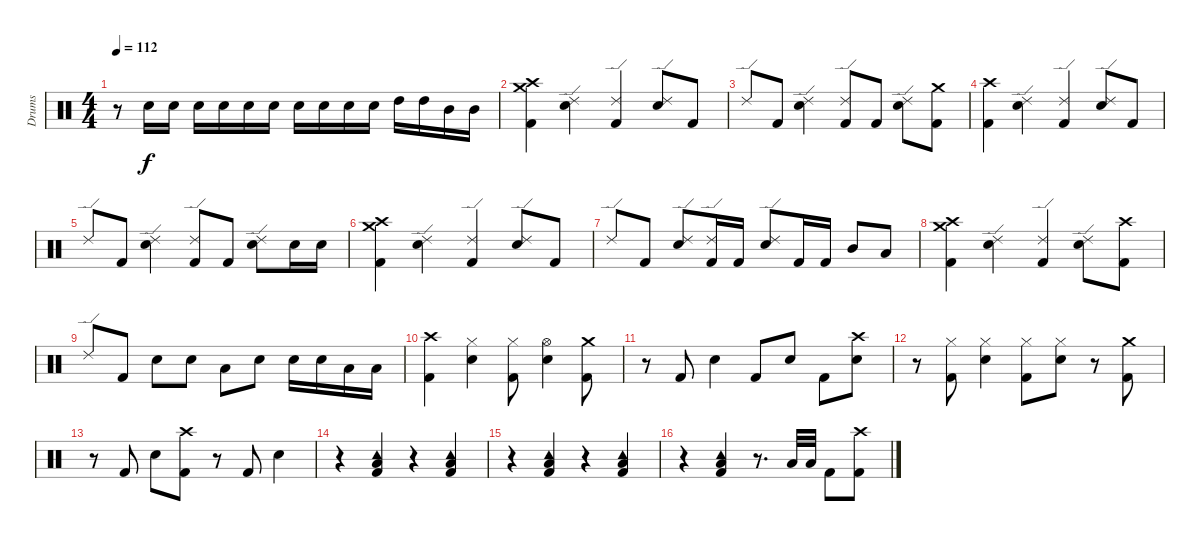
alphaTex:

\track ("Drums" "Drums") {instrument percussion}
\staff {score}
\articulation defaults
\ts (4 4)
\tempo 112
\clef neutral
\ks c
r.8{dy f} "Electric Snare (hit)".16 "Electric Snare (hit)".16 "Electric Snare (hit)".16 "Electric Snare (hit)".16 "Electric Snare (hit)".16 "Electric Snare (hit)".16 "Electric Snare (hit)".16 "Electric Snare (hit)".16 "Electric Snare (hit)".16 "Electric Snare (hit)".16 "High Tom (hit)".16 "High Tom (hit)".16 "Mid Tom (hit)".16 "Mid Tom (hit)".16 |
("Crash medium (hit)" "Crash high (hit)" "Kick (hit) 2").4 ("Ride (edge) 2" "Electric Snare (hit)").4 ("Ride (edge) 2" "Kick (hit) 2").4 ("Ride (edge) 2" "Electric Snare (hit)").8 "Kick (hit) 2".8 |
"Ride (edge) 2".8 "Kick (hit) 2".8 ("Ride (edge) 2" "Electric Snare (hit)").4 ("Ride (edge) 2" "Kick (hit) 2").8 "Kick (hit) 2".8 ("Ride (edge) 2" "Electric Snare (hit)").8 ("Crash medium (hit)" "Kick (hit) 2").8 |
("Crash high (hit)" "Kick (hit) 2").4 ("Ride (edge) 2" "Electric Snare (hit)").4 ("Ride (edge) 2" "Kick (hit) 2").4 ("Ride (edge) 2" "Electric Snare (hit)").8 "Kick (hit) 2".8 |
"Ride (edge) 2".8 "Kick (hit) 2".8 ("Ride (edge) 2" "Electric Snare (hit)").4 ("Ride (edge) 2" "Kick (hit) 2").8 "Kick (hit) 2".8 ("Ride (edge) 2" "Electric Snare (hit)").8 "Electric Snare (hit)".16 "Electric Snare (hit)".16 |
("Crash medium (hit)" "Crash high (hit)" "Kick (hit) 2").4 ("Ride (edge) 2" "Electric Snare (hit)").4 ("Ride (edge) 2" "Kick (hit) 2").4 ("Ride (edge) 2" "Electric Snare (hit)").8 "Kick (hit) 2".8 |
"Ride (edge) 2".8 "Kick (hit) 2".8 ("Ride (edge) 2" "Electric Snare (hit)").8 ("Ride (edge) 2" "Kick (hit) 2").16 "Kick (hit) 2".16 ("Ride (edge) 2" "Electric Snare (hit)").8 "Kick (hit) 2".16 "Kick (hit) 2".16 "Mid Tom (hit)".8 "Low Tom (hit)".8 |
("Crash medium (hit)" "Crash high (hit)" "Kick (hit) 2").4 ("Ride (edge) 2" "Electric Snare (hit)").4 ("Ride (edge) 2" "Kick (hit) 2").4 ("Ride (edge) 2" "Electric Snare (hit)").8 ("Crash high (hit)" "Kick (hit) 2").8 |
"Ride (edge) 2".8 "Kick (hit) 2".8 "Electric Snare (hit)".8 "Electric Snare (hit)".8 "Low Tom (hit)".8 "Electric Snare (hit)".8 "Electric Snare (hit)".16 "Electric Snare (hit)".16 "Low Tom (hit)".16 "Low Tom (hit)".16 |
("Crash high (hit)" "Kick (hit) 2").4 ("Hi-Hat (closed)" "Electric Snare (hit)").4 ("Hi-Hat (closed)" "Kick (hit) 2").8 ("Hi-Hat (open)" "Electric Snare (hit)").4 ("Crash medium (hit)" "Kick (hit) 2").8 |
r.8 "Kick (hit) 2".8 "Electric Snare (hit)".4 "Kick (hit) 2".8 "Electric Snare (hit)".8 "Kick (hit) 2".8 ("Crash high (hit)" "Electric Snare (hit)").8 |
r.8 ("Hi-Hat (closed)" "Kick (hit) 2").8 ("Hi-Hat (closed)" "Electric Snare (hit)").4 ("Hi-Hat (closed)" "Kick (hit) 2").8 ("Hi-Hat (closed)" "Electric Snare (hit)").8 r.8 ("Crash medium (hit)" "Kick (hit) 2").8 |
r.8 "Kick (hit) 2".8 "Electric Snare (hit)".8 ("Crash high (hit)" "Kick (hit) 2").8 r.8 "Kick (hit) 2".8 "Electric Snare (hit)".4 |
r.4 ("Low Floor Tom (hit)" "Tambourine (hit)" "Kick (hit) 2").4 r.4 ("Low Floor Tom (hit)" "Tambourine (hit)" "Kick (hit) 2").4 |
r.4 ("Low Floor Tom (hit)" "Tambourine (hit)" "Kick (hit) 2").4 r.4 ("Low Floor Tom (hit)" "Tambourine (hit)" "Kick (hit) 2").4 |
r.4 ("Low Floor Tom (hit)" "Tambourine (hit)" "Kick (hit) 2").4 r.8{d} "Low Floor Tom (hit)".32 "Low Floor Tom (hit)".32 "Kick (hit) 2".8 ("Crash high (hit)" "Kick (hit) 2").8
